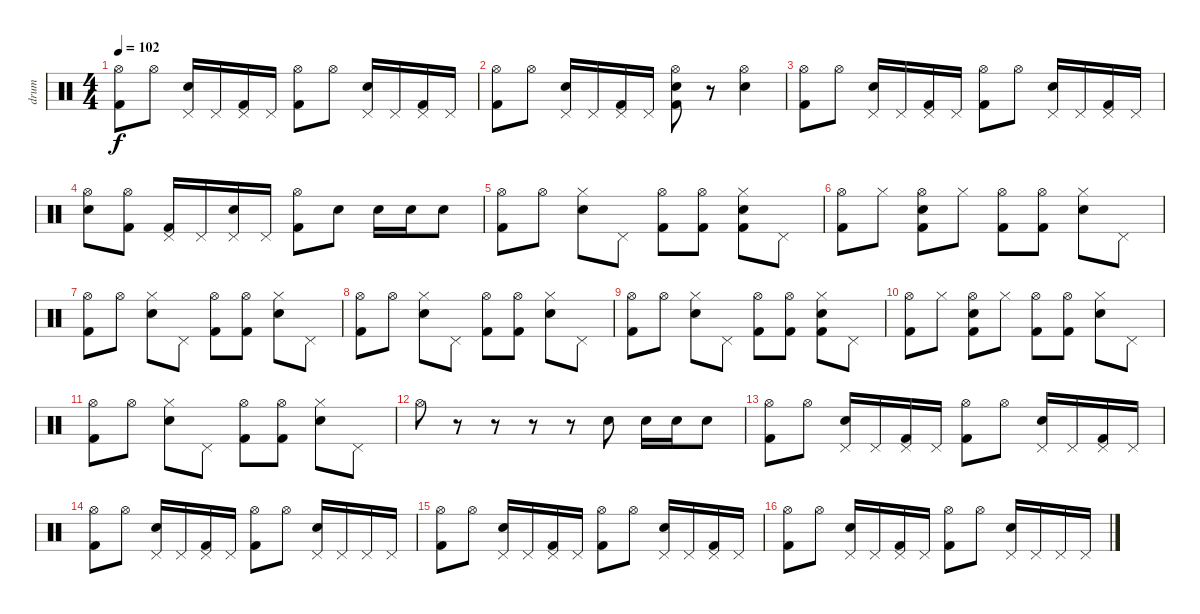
\track ("drum" "drum") {instrument percussion}
\staff {score}
\articulation defaults
\ts (4 4)
\tempo 102
\clef neutral
\ks c
("Hi-Hat (open)" "Kick (hit) 2").8{dy f} "Hi-Hat (open)".8 ("Pedal Hi-Hat (hit)" "Electric Snare (hit)").16 "Pedal Hi-Hat (hit)".16 ("Pedal Hi-Hat (hit)" "Kick (hit) 2").16 "Pedal Hi-Hat (hit)".16 ("Hi-Hat (open)" "Kick (hit) 2").8 "Hi-Hat (open)".8 ("Pedal Hi-Hat (hit)" "Electric Snare (hit)").16 "Pedal Hi-Hat (hit)".16 ("Pedal Hi-Hat (hit)" "Kick (hit) 2").16 "Pedal Hi-Hat (hit)".16 |
("Hi-Hat (open)" "Kick (hit) 2").8 "Hi-Hat (open)".8 ("Pedal Hi-Hat (hit)" "Electric Snare (hit)").16 "Pedal Hi-Hat (hit)".16 ("Pedal Hi-Hat (hit)" "Kick (hit) 2").16 "Pedal Hi-Hat (hit)".16 ("Hi-Hat (open)" "Electric Snare (hit)" "Kick (hit) 2").8 r.8 ("Hi-Hat (open)" "Electric Snare (hit)").4 |
("Hi-Hat (open)" "Kick (hit) 2").8 "Hi-Hat (open)".8 ("Pedal Hi-Hat (hit)" "Electric Snare (hit)").16 "Pedal Hi-Hat (hit)".16 ("Pedal Hi-Hat (hit)" "Kick (hit) 2").16 "Pedal Hi-Hat (hit)".16 ("Hi-Hat (open)" "Kick (hit) 2").8 "Hi-Hat (open)".8 ("Pedal Hi-Hat (hit)" "Electric Snare (hit)").16 "Pedal Hi-Hat (hit)".16 ("Pedal Hi-Hat (hit)" "Kick (hit) 2").16 "Pedal Hi-Hat (hit)".16 |
("Hi-Hat (open)" "Electric Snare (hit)").8 ("Hi-Hat (open)" "Kick (hit) 2").8 ("Pedal Hi-Hat (hit)" "Kick (hit) 2").16 "Pedal Hi-Hat (hit)".16 ("Pedal Hi-Hat (hit)" "Electric Snare (hit)").16 "Pedal Hi-Hat (hit)".16 ("Hi-Hat (open)" "Kick (hit) 2").8 "Electric Snare (hit)".8 "Electric Snare (hit)".16 "Electric Snare (hit)".16 "Electric Snare (hit)".8 |
("Hi-Hat (open)" "Kick (hit) 2").8 "Hi-Hat (open)".8 ("Hi-Hat (closed)" "Electric Snare (hit)").8 "Pedal Hi-Hat (hit)".8 ("Hi-Hat (open)" "Kick (hit) 2").8 ("Hi-Hat (open)" "Kick (hit) 2").8 ("Hi-Hat (closed)" "Electric Snare (hit)" "Kick (hit) 2").8 "Pedal Hi-Hat (hit)".8 |
("Hi-Hat (open)" "Kick (hit) 2").8 "Hi-Hat (closed)".8 ("Hi-Hat (open)" "Electric Snare (hit)" "Kick (hit) 2").8 "Hi-Hat (closed)".8 ("Hi-Hat (open)" "Kick (hit) 2").8 ("Hi-Hat (open)" "Kick (hit) 2").8 ("Hi-Hat (closed)" "Electric Snare (hit)").8 "Pedal Hi-Hat (hit)".8 |
("Hi-Hat (open)" "Kick (hit) 2").8 "Hi-Hat (open)".8 ("Hi-Hat (closed)" "Electric Snare (hit)").8 "Pedal Hi-Hat (hit)".8 ("Hi-Hat (open)" "Kick (hit) 2").8 ("Hi-Hat (open)" "Kick (hit) 2").8 ("Hi-Hat (closed)" "Electric Snare (hit)").8 "Pedal Hi-Hat (hit)".8 |
("Hi-Hat (open)" "Kick (hit) 2").8 "Hi-Hat (open)".8 ("Hi-Hat (closed)" "Electric Snare (hit)").8 "Pedal Hi-Hat (hit)".8 ("Hi-Hat (open)" "Kick (hit) 2").8 ("Hi-Hat (open)" "Kick (hit) 2").8 ("Hi-Hat (closed)" "Electric Snare (hit)").8 "Pedal Hi-Hat (hit)".8 |
("Hi-Hat (open)" "Kick (hit) 2").8 "Hi-Hat (open)".8 ("Hi-Hat (closed)" "Electric Snare (hit)").8 "Pedal Hi-Hat (hit)".8 ("Hi-Hat (open)" "Kick (hit) 2").8 ("Hi-Hat (open)" "Kick (hit) 2").8 ("Hi-Hat (closed)" "Electric Snare (hit)" "Kick (hit) 2").8 "Pedal Hi-Hat (hit)".8 |
("Hi-Hat (open)" "Kick (hit) 2").8 "Hi-Hat (closed)".8 ("Hi-Hat (open)" "Electric Snare (hit)" "Kick (hit) 2").8 "Hi-Hat (closed)".8 ("Hi-Hat (open)" "Kick (hit) 2").8 ("Hi-Hat (open)" "Kick (hit) 2").8 ("Hi-Hat (closed)" "Electric Snare (hit)").8 "Pedal Hi-Hat (hit)".8 |
("Hi-Hat (open)" "Kick (hit) 2").8 "Hi-Hat (open)".8 ("Hi-Hat (closed)" "Electric Snare (hit)").8 "Pedal Hi-Hat (hit)".8 ("Hi-Hat (open)" "Kick (hit) 2").8 ("Hi-Hat (open)" "Kick (hit) 2").8 ("Hi-Hat (closed)" "Electric Snare (hit)").8 "Pedal Hi-Hat (hit)".8 |
"Hi-Hat (open)".8 r.8 r.8 r.8 r.8 "Electric Snare (hit)".8 "Electric Snare (hit)".16 "Electric Snare (hit)".16 "Electric Snare (hit)".8 |
("Hi-Hat (open)" "Kick (hit) 2").8 "Hi-Hat (open)".8 ("Pedal Hi-Hat (hit)" "Electric Snare (hit)").16 "Pedal Hi-Hat (hit)".16 ("Pedal Hi-Hat (hit)" "Kick (hit) 2").16 "Pedal Hi-Hat (hit)".16 ("Hi-Hat (open)" "Kick (hit) 2").8 "Hi-Hat (open)".8 ("Pedal Hi-Hat (hit)" "Electric Snare (hit)").16 "Pedal Hi-Hat (hit)".16 ("Pedal Hi-Hat (hit)" "Kick (hit) 2").16 "Pedal Hi-Hat (hit)".16 |
("Hi-Hat (open)" "Kick (hit) 2").8 "Hi-Hat (open)".8 ("Pedal Hi-Hat (hit)" "Electric Snare (hit)").16 "Pedal Hi-Hat (hit)".16 ("Pedal Hi-Hat (hit)" "Kick (hit) 2").16 "Pedal Hi-Hat (hit)".16 ("Hi-Hat (open)" "Kick (hit) 2").8 "Hi-Hat (open)".8 ("Pedal Hi-Hat (hit)" "Electric Snare (hit)").16 "Pedal Hi-Hat (hit)".16 "Pedal Hi-Hat (hit)".16 "Pedal Hi-Hat (hit)".16 |
("Hi-Hat (open)" "Kick (hit) 2").8 "Hi-Hat (open)".8 ("Pedal Hi-Hat (hit)" "Electric Snare (hit)").16 "Pedal Hi-Hat (hit)".16 ("Pedal Hi-Hat (hit)" "Kick (hit) 2").16 "Pedal Hi-Hat (hit)".16 ("Hi-Hat (open)" "Kick (hit) 2").8 "Hi-Hat (open)".8 ("Pedal Hi-Hat (hit)" "Electric Snare (hit)").16 "Pedal Hi-Hat (hit)".16 ("Pedal Hi-Hat (hit)" "Kick (hit) 2").16 "Pedal Hi-Hat (hit)".16 |
("Hi-Hat (open)" "Kick (hit) 2").8 "Hi-Hat (open)".8 ("Pedal Hi-Hat (hit)" "Electric Snare (hit)").16 "Pedal Hi-Hat (hit)".16 ("Pedal Hi-Hat (hit)" "Kick (hit) 2").16 "Pedal Hi-Hat (hit)".16 ("Hi-Hat (open)" "Kick (hit) 2").8 "Hi-Hat (open)".8 ("Pedal Hi-Hat (hit)" "Electric Snare (hit)").16 "Pedal Hi-Hat (hit)".16 "Pedal Hi-Hat (hit)".16 "Pedal Hi-Hat (hit)".16
